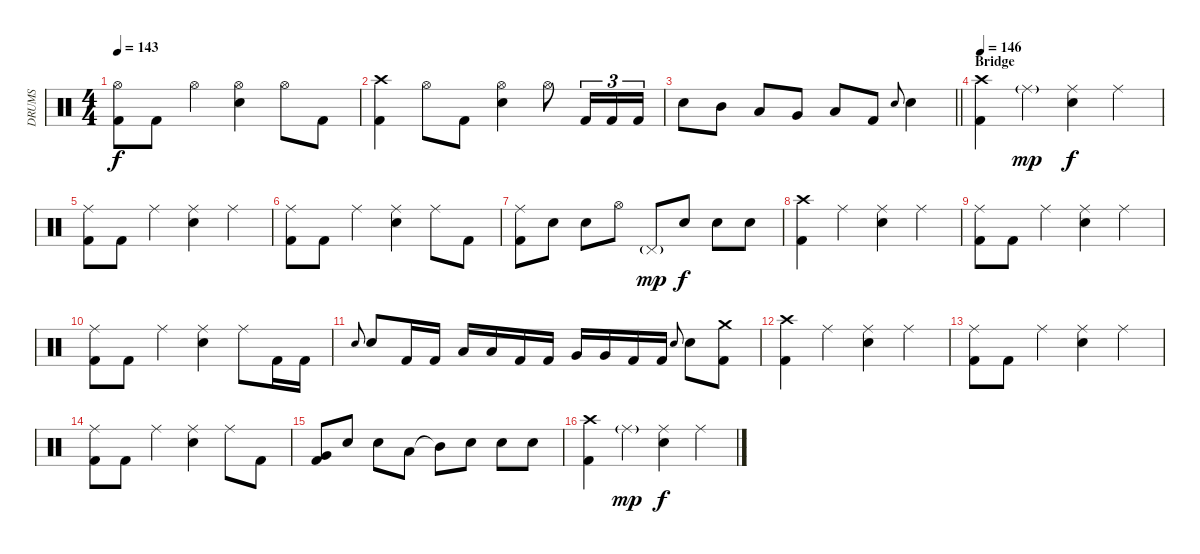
\track ("DRUMS" "DRUMS") {instrument percussion}
\staff {score}
\articulation defaults
\ts (4 4)
\tempo 143
\clef neutral
\ks c
("Hi-Hat (open)" "Kick (hit) 2").8{dy f} "Kick (hit) 2".8 "Hi-Hat (open)".4 ("Hi-Hat (open)" "Snare (hit) 2").4 "Hi-Hat (open)".8 "Kick (hit) 2".8 |
("Crash high (hit)" "Kick (hit) 2").4 "Hi-Hat (open)".8 "Kick (hit) 2".8 ("Hi-Hat (open)" "Snare (hit) 2").4 "Hi-Hat (open)".8 "Kick (hit) 2".16{tu (3 2)} "Kick (hit) 2".16{tu (3 2)} "Kick (hit) 2".16{tu (3 2)} |
\barLineRight lightlight "Snare (hit) 2".8 "Mid Tom (hit)".8 "Low Tom (hit)".8 "Very Low Tom (hit)".8 "Low Floor Tom (hit)".8 "Kick (hit) 2".8 "Snare (hit) 2".8{gr onbeat} "Snare (hit) 2".4
|
\section ("" "Bridge")
\tempo 146
("Crash high (hit)" "Kick (hit) 2").4 "Ride (middle)"{g}.4{dy mp} ("Ride (middle)" "Snare (hit) 2").4{dy f} "Ride (middle)".4 |
("Ride (middle)" "Kick (hit) 2").8 "Kick (hit) 2".8 "Ride (middle)".4 ("Ride (middle)" "Snare (hit) 2").4 "Ride (middle)".4 |
("Ride (middle)" "Kick (hit) 2").8 "Kick (hit) 2".8 "Ride (middle)".4 ("Ride (middle)" "Snare (hit) 2").4 "Ride (middle)".8 "Kick (hit) 2".8 |
("Ride (middle)" "Kick (hit) 2").8 "Snare (hit) 2".8 "Snare (hit) 2".8 "Hi-Hat (open)".8 "Pedal Hi-Hat (hit)"{g}.8{dy mp} "Snare (hit) 2".8{dy f} "Snare (hit) 2".8 "Snare (hit) 2".8 |
("Crash high (hit)" "Kick (hit) 2").4 "Ride (middle)".4 ("Ride (middle)" "Snare (hit) 2").4 "Ride (middle)".4 |
("Ride (middle)" "Kick (hit) 2").8 "Kick (hit) 2".8 "Ride (middle)".4 ("Ride (middle)" "Snare (hit) 2").4 "Ride (middle)".4 |
("Ride (middle)" "Kick (hit) 2").8 "Kick (hit) 2".8 "Ride (middle)".4 ("Ride (middle)" "Snare (hit) 2").4 "Ride (middle)".8 "Kick (hit) 2".16 "Kick (hit) 2".16 |
"Snare (hit) 2".8{gr onbeat} "Snare (hit) 2".8 "Kick (hit) 2".16 "Kick (hit) 2".16 "Low Tom (hit)".16 "Low Tom (hit)".16 "Kick (hit) 2".16 "Kick (hit) 2".16 "Very Low Tom (hit)".16 "Very Low Tom (hit)".16 "Kick (hit) 2".16 "Kick (hit) 2".16 "Snare (hit) 2".8{gr onbeat} "Snare (hit) 2".8 ("Crash medium (hit)" "Kick (hit) 2").8 |
("Crash high (hit)" "Kick (hit) 2").4 "Ride (middle)".4 ("Ride (middle)" "Snare (hit) 2").4 "Ride (middle)".4 |
("Ride (middle)" "Kick (hit) 2").8 "Kick (hit) 2".8 "Ride (middle)".4 ("Ride (middle)" "Snare (hit) 2").4 "Ride (middle)".4 |
("Ride (middle)" "Kick (hit) 2").8 "Kick (hit) 2".8 "Ride (middle)".4 ("Ride (middle)" "Snare (hit) 2").4 "Ride (middle)".8 "Kick (hit) 2".8 |
("Very Low Tom (hit)" "Kick (hit) 2").8 "Snare (hit) 2".8 "Snare (hit) 2".8 "Low Tom (hit)".8 "Mid Tom (hit)"{t}.8 "Snare (hit) 2".8 "Snare (hit) 2".8 "Snare (hit) 2".8 |
("Crash high (hit)" "Kick (hit) 2").4 "Ride (middle)"{g}.4{dy mp} ("Ride (middle)" "Snare (hit) 2").4{dy f} "Ride (middle)".4
